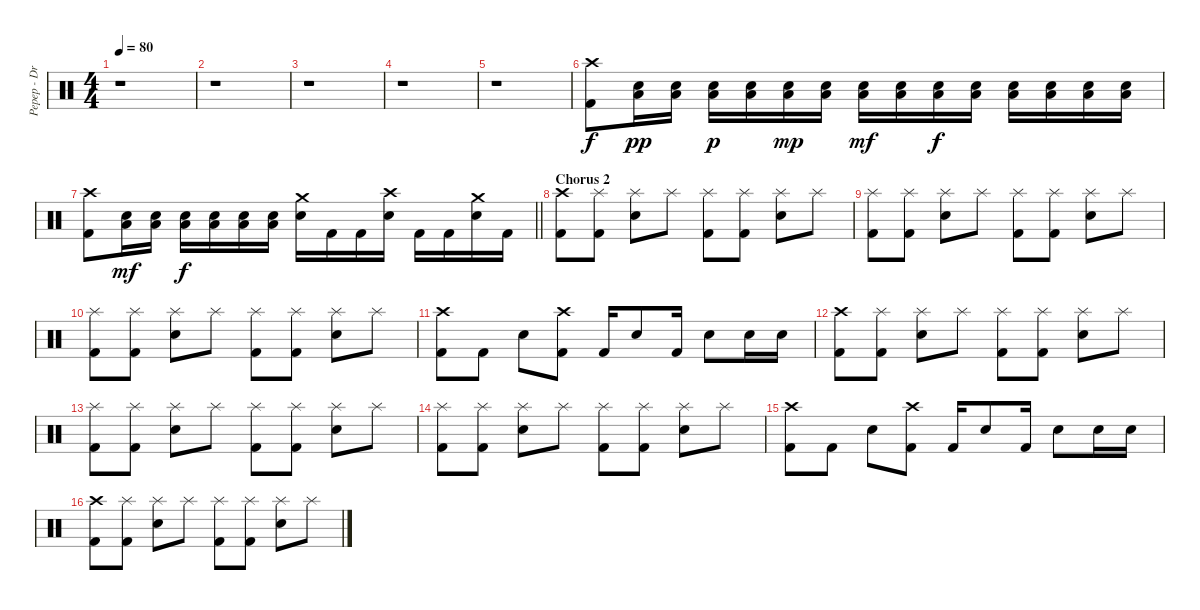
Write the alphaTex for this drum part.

\track ("Pepep - Drum" "Pepep - Dr") {instrument percussion}
\staff {score}
\articulation defaults
\ts (4 4)
\tempo 80
\clef neutral
\ks c
r.1{dy f} |
r.1 |
r.1 |
r.1 |
r.1 |
("Crash high (hit)" "Kick (hit) 2").8 ("Electric Snare (hit)" "Low Floor Tom (hit)").16{dy pp} ("Electric Snare (hit)" "Low Floor Tom (hit)").16 ("Electric Snare (hit)" "Low Floor Tom (hit)").16{dy p} ("Electric Snare (hit)" "Low Floor Tom (hit)").16 ("Electric Snare (hit)" "Low Floor Tom (hit)").16{dy mp} ("Electric Snare (hit)" "Low Floor Tom (hit)").16 ("Electric Snare (hit)" "Low Floor Tom (hit)").16{dy mf} ("Electric Snare (hit)" "Low Floor Tom (hit)").16 ("Electric Snare (hit)" "Low Floor Tom (hit)").16{dy f} ("Electric Snare (hit)" "Low Floor Tom (hit)").16 ("Electric Snare (hit)" "Low Floor Tom (hit)").16 ("Electric Snare (hit)" "Low Floor Tom (hit)").16 ("Electric Snare (hit)" "Low Floor Tom (hit)").16 ("Electric Snare (hit)" "Low Floor Tom (hit)").16 |
\barLineRight lightlight
("Crash high (hit)" "Kick (hit) 2").8 ("Electric Snare (hit)" "Low Floor Tom (hit)").16{dy mf} ("Electric Snare (hit)" "Low Floor Tom (hit)").16 ("Electric Snare (hit)" "Low Floor Tom (hit)").16{dy f} ("Electric Snare (hit)" "Low Floor Tom (hit)").16 ("Electric Snare (hit)" "Low Floor Tom (hit)").16 ("Electric Snare (hit)" "Low Floor Tom (hit)").16 ("Crash medium (hit)" "Electric Snare (hit)").16 "Kick (hit) 2".16 "Kick (hit) 2".16 ("Crash high (hit)" "Electric Snare (hit)").16 "Kick (hit) 2".16 "Kick (hit) 2".16 ("Crash medium (hit)" "Electric Snare (hit)").16 "Kick (hit) 2".16 |
\section ("" "Chorus 2")
("Crash high (hit)" "Kick (hit) 2").8 ("Splash (hit)" "Kick (hit) 2").8 ("Splash (hit)" "Electric Snare (hit)").8 "Splash (hit)".8 ("Splash (hit)" "Kick (hit) 2").8 ("Splash (hit)" "Kick (hit) 2").8 ("Splash (hit)" "Electric Snare (hit)").8 "Splash (hit)".8 |
("Splash (hit)" "Kick (hit) 2").8 ("Splash (hit)" "Kick (hit) 2").8 ("Splash (hit)" "Electric Snare (hit)").8 "Splash (hit)".8 ("Splash (hit)" "Kick (hit) 2").8 ("Splash (hit)" "Kick (hit) 2").8 ("Splash (hit)" "Electric Snare (hit)").8 "Splash (hit)".8 |
("Splash (hit)" "Kick (hit) 2").8 ("Splash (hit)" "Kick (hit) 2").8 ("Splash (hit)" "Electric Snare (hit)").8 "Splash (hit)".8 ("Splash (hit)" "Kick (hit) 2").8 ("Splash (hit)" "Kick (hit) 2").8 ("Splash (hit)" "Electric Snare (hit)").8 "Splash (hit)".8 |
("Crash high (hit)" "Kick (hit) 2").8 "Kick (hit) 2".8 "Electric Snare (hit)".8 ("Crash high (hit)" "Kick (hit) 2").8 "Kick (hit) 2".16 "Electric Snare (hit)".8 "Kick (hit) 2".16 "Electric Snare (hit)".8 "Electric Snare (hit)".16 "Electric Snare (hit)".16 |
("Crash high (hit)" "Kick (hit) 2").8 ("Splash (hit)" "Kick (hit) 2").8 ("Splash (hit)" "Electric Snare (hit)").8 "Splash (hit)".8 ("Splash (hit)" "Kick (hit) 2").8 ("Splash (hit)" "Kick (hit) 2").8 ("Splash (hit)" "Electric Snare (hit)").8 "Splash (hit)".8 |
("Splash (hit)" "Kick (hit) 2").8 ("Splash (hit)" "Kick (hit) 2").8 ("Splash (hit)" "Electric Snare (hit)").8 "Splash (hit)".8 ("Splash (hit)" "Kick (hit) 2").8 ("Splash (hit)" "Kick (hit) 2").8 ("Splash (hit)" "Electric Snare (hit)").8 "Splash (hit)".8 |
("Splash (hit)" "Kick (hit) 2").8 ("Splash (hit)" "Kick (hit) 2").8 ("Splash (hit)" "Electric Snare (hit)").8 "Splash (hit)".8 ("Splash (hit)" "Kick (hit) 2").8 ("Splash (hit)" "Kick (hit) 2").8 ("Splash (hit)" "Electric Snare (hit)").8 "Splash (hit)".8 |
("Crash high (hit)" "Kick (hit) 2").8 "Kick (hit) 2".8 "Electric Snare (hit)".8 ("Crash high (hit)" "Kick (hit) 2").8 "Kick (hit) 2".16 "Electric Snare (hit)".8 "Kick (hit) 2".16 "Electric Snare (hit)".8 "Electric Snare (hit)".16 "Electric Snare (hit)".16 |
("Crash high (hit)" "Kick (hit) 2").8 ("Splash (hit)" "Kick (hit) 2").8 ("Splash (hit)" "Electric Snare (hit)").8 "Splash (hit)".8 ("Splash (hit)" "Kick (hit) 2").8 ("Splash (hit)" "Kick (hit) 2").8 ("Splash (hit)" "Electric Snare (hit)").8 "Splash (hit)".8
